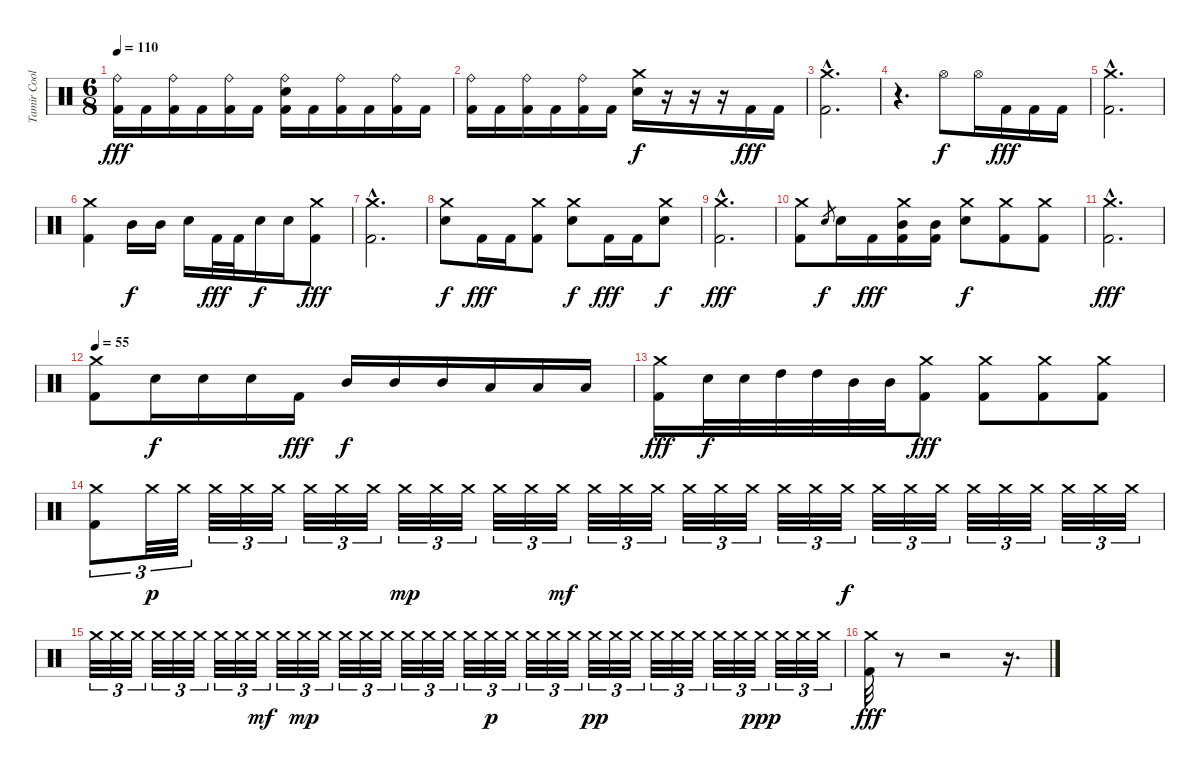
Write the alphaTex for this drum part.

\track ("Tamir Coolberg" "Tamir Cool") {instrument percussion}
\staff {score}
\articulation defaults
\ts (6 8)
\tempo 110
\clef neutral
\ks c
("Ride (bell)" "Kick (hit) 2").16{dy fff} "Kick (hit) 2".16 ("Ride (bell)" "Kick (hit) 2").16 "Kick (hit) 2".16 ("Ride (bell)" "Kick (hit) 2").16 "Kick (hit) 2".16 ("Ride (bell)" "Electric Snare (hit)" "Kick (hit) 2").16 "Kick (hit) 2".16 ("Ride (bell)" "Kick (hit) 2").16 "Kick (hit) 2".16 ("Ride (bell)" "Kick (hit) 2").16 "Kick (hit) 2".16 |
("Ride (bell)" "Kick (hit) 2").16 "Kick (hit) 2".16 ("Ride (bell)" "Kick (hit) 2").16 "Kick (hit) 2".16 ("Ride (bell)" "Kick (hit) 2").16 "Kick (hit) 2".16 ("Crash medium (hit)" "Electric Snare (hit)").16{dy f} r.16 r.16 r.16 "Kick (hit) 2".16{dy fff} "Kick (hit) 2".16 |
("Crash medium (hit)"{hac} "Kick (hit) 2"{hac}).2{d} |
r.4{d} "Hi-Hat (open)".8{dy f} "Hi-Hat (open)".16 "Kick (hit) 2".16{dy fff} "Kick (hit) 2".16 "Kick (hit) 2".16 |
("Crash medium (hit)"{hac} "Kick (hit) 2"{hac}).2{d} |
("Crash medium (hit)" "Kick (hit) 2").4 "Mid Tom (hit)".16{dy f} "Mid Tom (hit)".16 "Electric Snare (hit)".16 "Kick (hit) 2".32{dy fff} "Kick (hit) 2".32 "Electric Snare (hit)".16{dy f} "Electric Snare (hit)".16 ("Crash medium (hit)" "Kick (hit) 2").8{dy fff} |
("Crash medium (hit)"{hac} "Kick (hit) 2"{hac}).2{d} |
("Crash medium (hit)" "Electric Snare (hit)").8{dy f} "Kick (hit) 2".16{dy fff} "Kick (hit) 2".16 ("Crash medium (hit)" "Kick (hit) 2").8 ("Crash medium (hit)" "Electric Snare (hit)").8{dy f} "Kick (hit) 2".16{dy fff} "Kick (hit) 2".16 ("Crash medium (hit)" "Electric Snare (hit)").8{dy f} |
("Crash medium (hit)"{hac} "Kick (hit) 2"{hac}).2{d dy fff} |
("Crash medium (hit)" "Kick (hit) 2").8 "Electric Snare (hit)".8{gr dy f} "Electric Snare (hit)".16 "Kick (hit) 2".16{dy fff} ("Crash medium (hit)" "Mid Tom (hit)" "Kick (hit) 2").16 ("Mid Tom (hit)" "Kick (hit) 2").16 ("Crash medium (hit)" "Electric Snare (hit)").8{dy f} ("Crash medium (hit)" "Kick (hit) 2").8 ("Crash medium (hit)" "Kick (hit) 2").8 |
("Crash medium (hit)"{hac} "Kick (hit) 2"{hac}).2{d dy fff} |
\tempo 55
("Crash medium (hit)" "Kick (hit) 2").8 "Electric Snare (hit)".16{dy f} "Electric Snare (hit)".16 "Electric Snare (hit)".16 "Kick (hit) 2".16{dy fff} "Mid Tom (hit)".16{dy f} "Mid Tom (hit)".16 "Mid Tom (hit)".16 "Low Tom (hit)".16 "Low Tom (hit)".16 "Low Tom (hit)".16 |
("Crash medium (hit)" "Kick (hit) 2").16{dy fff} "Electric Snare (hit)".32{dy f} "Electric Snare (hit)".32 "High Tom (hit)".32 "High Tom (hit)".32 "Mid Tom (hit)".32 "Mid Tom (hit)".32 ("Crash medium (hit)" "Kick (hit) 2").8{dy fff} ("Crash medium (hit)" "Kick (hit) 2").8 ("Crash medium (hit)" "Kick (hit) 2").8 ("Crash medium (hit)" "Kick (hit) 2").8 |
("Crash medium (hit)" "Kick (hit) 2").8{tu (3 2)} "Crash medium (hit)".32{tu (3 2) dy p} "Crash medium (hit)".32{tu (3 2)} "Crash medium (hit)".32{tu (3 2)} "Crash medium (hit)".32{tu (3 2)} "Crash medium (hit)".32{tu (3 2)} "Crash medium (hit)".32{tu (3 2)} "Crash medium (hit)".32{tu (3 2)} "Crash medium (hit)".32{tu (3 2)} "Crash medium (hit)".32{tu (3 2) dy mp} "Crash medium (hit)".32{tu (3 2)} "Crash medium (hit)".32{tu (3 2)} "Crash medium (hit)".32{tu (3 2)} "Crash medium (hit)".32{tu (3 2)} "Crash medium (hit)".32{tu (3 2) dy mf} "Crash medium (hit)".32{tu (3 2)} "Crash medium (hit)".32{tu (3 2)} "Crash medium (hit)".32{tu (3 2)} "Crash medium (hit)".32{tu (3 2)} "Crash medium (hit)".32{tu (3 2)} "Crash medium (hit)".32{tu (3 2)} "Crash medium (hit)".32{tu (3 2)} "Crash medium (hit)".32{tu (3 2)} "Crash medium (hit)".32{tu (3 2) dy f} "Crash medium (hit)".32{tu (3 2)} "Crash medium (hit)".32{tu (3 2)} "Crash medium (hit)".32{tu (3 2)} "Crash medium (hit)".32{tu (3 2)} "Crash medium (hit)".32{tu (3 2)} "Crash medium (hit)".32{tu (3 2)} "Crash medium (hit)".32{tu (3 2)} "Crash medium (hit)".32{tu (3 2)} "Crash medium (hit)".32{tu (3 2)} |
"Crash medium (hit)".32{tu (3 2)} "Crash medium (hit)".32{tu (3 2)} "Crash medium (hit)".32{tu (3 2)} "Crash medium (hit)".32{tu (3 2)} "Crash medium (hit)".32{tu (3 2)} "Crash medium (hit)".32{tu (3 2)} "Crash medium (hit)".32{tu (3 2)} "Crash medium (hit)".32{tu (3 2)} "Crash medium (hit)".32{tu (3 2) dy mf} "Crash medium (hit)".32{tu (3 2)} "Crash medium (hit)".32{tu (3 2) dy mp} "Crash medium (hit)".32{tu (3 2)} "Crash medium (hit)".32{tu (3 2)} "Crash medium (hit)".32{tu (3 2)} "Crash medium (hit)".32{tu (3 2)} "Crash medium (hit)".32{tu (3 2)} "Crash medium (hit)".32{tu (3 2)} "Crash medium (hit)".32{tu (3 2)} "Crash medium (hit)".32{tu (3 2)} "Crash medium (hit)".32{tu (3 2) dy p} "Crash medium (hit)".32{tu (3 2)} "Crash medium (hit)".32{tu (3 2)} "Crash medium (hit)".32{tu (3 2)} "Crash medium (hit)".32{tu (3 2)} "Crash medium (hit)".32{tu (3 2) dy pp} "Crash medium (hit)".32{tu (3 2)} "Crash medium (hit)".32{tu (3 2)} "Crash medium (hit)".32{tu (3 2)} "Crash medium (hit)".32{tu (3 2)} "Crash medium (hit)".32{tu (3 2)} "Crash medium (hit)".32{tu (3 2)} "Crash medium (hit)".32{tu (3 2)} "Crash medium (hit)".32{tu (3 2) dy ppp} "Crash medium (hit)".32{tu (3 2)} "Crash medium (hit)".32{tu (3 2)} "Crash medium (hit)".32{tu (3 2)} |
("Crash medium (hit)" "Kick (hit) 2").32{dy fff} r.8 r.2 r.16{d}
